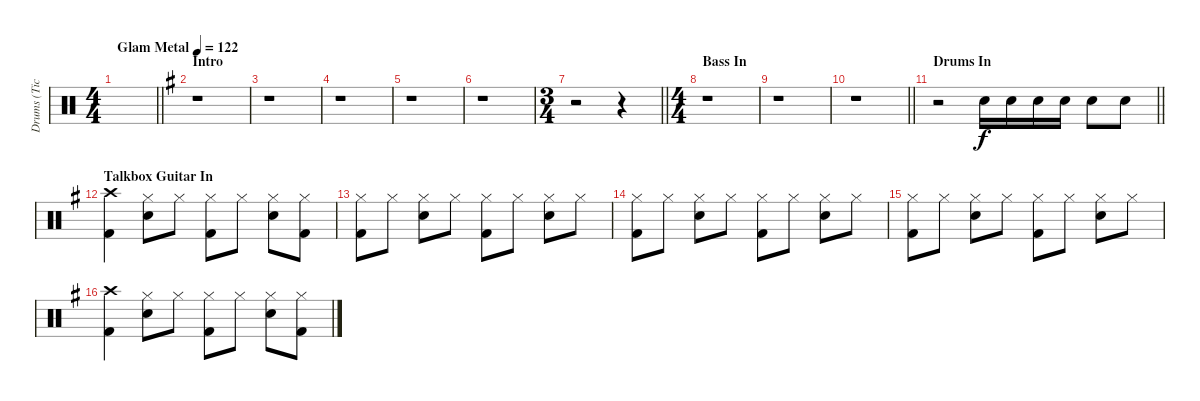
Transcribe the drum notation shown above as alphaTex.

\track ("Drums (Tico Torres)" "Drums (Tic") {instrument percussion}
\staff {score}
\articulation defaults
\ts (4 4)
\tempo (122 "Glam Metal")
\clef neutral
\barLineRight lightlight
\ks c
|
\section ("" "Intro")
\ks eminor
r.1 |
r.1 |
r.1 |
r.1 |
r.1 |
\ts (3 4)
\barLineRight lightlight
r.2 r.4 |
\ts (4 4)
\section ("" "Bass In")
r.1 |
r.1 |
\barLineRight lightlight
r.1 |
\section ("" "Drums In")
\barLineRight lightlight
r.2 "Snare (hit) 2".16 "Snare (hit) 2".16 "Snare (hit) 2".16 "Snare (hit) 2".16 "Snare (hit) 2".8 "Snare (hit) 2".8 |
\section ("" "Talkbox Guitar In")
("Crash high (hit)" "Kick (hit) 2").4{dy f} ("Hi-Hat (closed)" "Snare (hit) 2").8 "Hi-Hat (closed)".8 ("Hi-Hat (closed)" "Kick (hit) 2").8 "Hi-Hat (closed)".8 ("Hi-Hat (closed)" "Snare (hit) 2").8 ("Hi-Hat (closed)" "Kick (hit) 2").8 |
("Hi-Hat (closed)" "Kick (hit) 2").8 "Hi-Hat (closed)".8 ("Hi-Hat (closed)" "Snare (hit) 2").8 "Hi-Hat (closed)".8 ("Hi-Hat (closed)" "Kick (hit) 2").8 "Hi-Hat (closed)".8 ("Hi-Hat (closed)" "Snare (hit) 2").8 "Hi-Hat (closed)".8 |
("Hi-Hat (closed)" "Kick (hit) 2").8 "Hi-Hat (closed)".8 ("Hi-Hat (closed)" "Snare (hit) 2").8 "Hi-Hat (closed)".8 ("Hi-Hat (closed)" "Kick (hit) 2").8 "Hi-Hat (closed)".8 ("Hi-Hat (closed)" "Snare (hit) 2").8 "Hi-Hat (closed)".8 |
("Hi-Hat (closed)" "Kick (hit) 2").8 "Hi-Hat (closed)".8 ("Hi-Hat (closed)" "Snare (hit) 2").8 "Hi-Hat (closed)".8 ("Hi-Hat (closed)" "Kick (hit) 2").8 "Hi-Hat (closed)".8 ("Hi-Hat (closed)" "Snare (hit) 2").8 "Hi-Hat (closed)".8 |
("Crash high (hit)" "Kick (hit) 2").4 ("Hi-Hat (closed)" "Snare (hit) 2").8 "Hi-Hat (closed)".8 ("Hi-Hat (closed)" "Kick (hit) 2").8 "Hi-Hat (closed)".8 ("Hi-Hat (closed)" "Snare (hit) 2").8 ("Hi-Hat (closed)" "Kick (hit) 2").8
